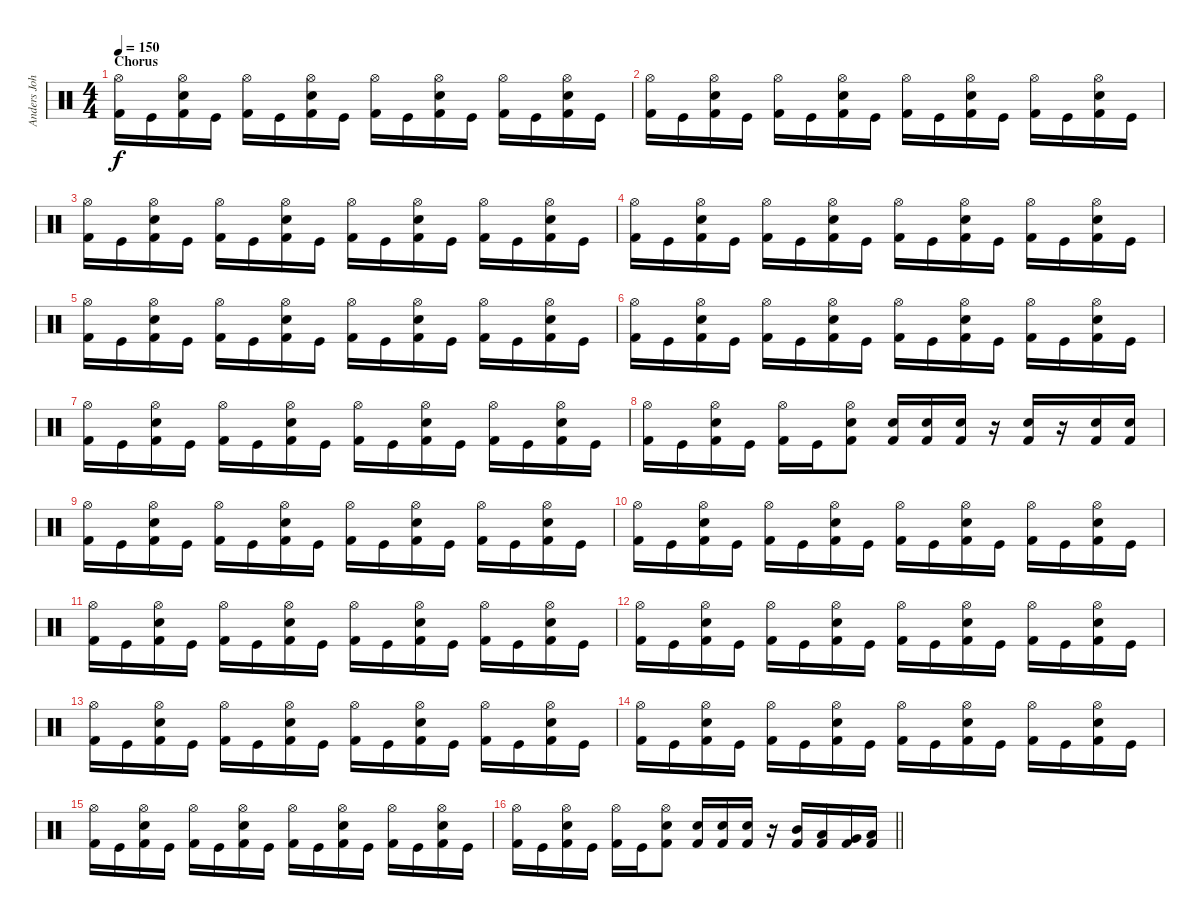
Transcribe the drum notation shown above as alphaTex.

\track ("Anders Johansson" "Anders Joh") {instrument percussion}
\staff {score}
\articulation defaults
\ts (4 4)
\section ("" "Chorus")
\tempo 150
\clef neutral
\ks c
("Hi-Hat (open)" "Kick (hit) 2").16{dy f} "Kick (hit)".16 ("Hi-Hat (open)" "Electric Snare (hit)" "Kick (hit) 2").16 "Kick (hit)".16 ("Hi-Hat (open)" "Kick (hit) 2").16 "Kick (hit)".16 ("Hi-Hat (open)" "Electric Snare (hit)" "Kick (hit) 2").16 "Kick (hit)".16 ("Hi-Hat (open)" "Kick (hit) 2").16 "Kick (hit)".16 ("Hi-Hat (open)" "Electric Snare (hit)" "Kick (hit) 2").16 "Kick (hit)".16 ("Hi-Hat (open)" "Kick (hit) 2").16 "Kick (hit)".16 ("Hi-Hat (open)" "Electric Snare (hit)" "Kick (hit) 2").16 "Kick (hit)".16 |
("Hi-Hat (open)" "Kick (hit) 2").16 "Kick (hit)".16 ("Hi-Hat (open)" "Electric Snare (hit)" "Kick (hit) 2").16 "Kick (hit)".16 ("Hi-Hat (open)" "Kick (hit) 2").16 "Kick (hit)".16 ("Hi-Hat (open)" "Electric Snare (hit)" "Kick (hit) 2").16 "Kick (hit)".16 ("Hi-Hat (open)" "Kick (hit) 2").16 "Kick (hit)".16 ("Hi-Hat (open)" "Electric Snare (hit)" "Kick (hit) 2").16 "Kick (hit)".16 ("Hi-Hat (open)" "Kick (hit) 2").16 "Kick (hit)".16 ("Hi-Hat (open)" "Electric Snare (hit)" "Kick (hit) 2").16 "Kick (hit)".16 |
("Hi-Hat (open)" "Kick (hit) 2").16 "Kick (hit)".16 ("Hi-Hat (open)" "Electric Snare (hit)" "Kick (hit) 2").16 "Kick (hit)".16 ("Hi-Hat (open)" "Kick (hit) 2").16 "Kick (hit)".16 ("Hi-Hat (open)" "Electric Snare (hit)" "Kick (hit) 2").16 "Kick (hit)".16 ("Hi-Hat (open)" "Kick (hit) 2").16 "Kick (hit)".16 ("Hi-Hat (open)" "Electric Snare (hit)" "Kick (hit) 2").16 "Kick (hit)".16 ("Hi-Hat (open)" "Kick (hit) 2").16 "Kick (hit)".16 ("Hi-Hat (open)" "Electric Snare (hit)" "Kick (hit) 2").16 "Kick (hit)".16 |
("Hi-Hat (open)" "Kick (hit) 2").16 "Kick (hit)".16 ("Hi-Hat (open)" "Electric Snare (hit)" "Kick (hit) 2").16 "Kick (hit)".16 ("Hi-Hat (open)" "Kick (hit) 2").16 "Kick (hit)".16 ("Hi-Hat (open)" "Electric Snare (hit)" "Kick (hit) 2").16 "Kick (hit)".16 ("Hi-Hat (open)" "Kick (hit) 2").16 "Kick (hit)".16 ("Hi-Hat (open)" "Electric Snare (hit)" "Kick (hit) 2").16 "Kick (hit)".16 ("Hi-Hat (open)" "Kick (hit) 2").16 "Kick (hit)".16 ("Hi-Hat (open)" "Electric Snare (hit)" "Kick (hit) 2").16 "Kick (hit)".16 |
("Hi-Hat (open)" "Kick (hit) 2").16 "Kick (hit)".16 ("Hi-Hat (open)" "Electric Snare (hit)" "Kick (hit) 2").16 "Kick (hit)".16 ("Hi-Hat (open)" "Kick (hit) 2").16 "Kick (hit)".16 ("Hi-Hat (open)" "Electric Snare (hit)" "Kick (hit) 2").16 "Kick (hit)".16 ("Hi-Hat (open)" "Kick (hit) 2").16 "Kick (hit)".16 ("Hi-Hat (open)" "Electric Snare (hit)" "Kick (hit) 2").16 "Kick (hit)".16 ("Hi-Hat (open)" "Kick (hit) 2").16 "Kick (hit)".16 ("Hi-Hat (open)" "Electric Snare (hit)" "Kick (hit) 2").16 "Kick (hit)".16 |
("Hi-Hat (open)" "Kick (hit) 2").16 "Kick (hit)".16 ("Hi-Hat (open)" "Electric Snare (hit)" "Kick (hit) 2").16 "Kick (hit)".16 ("Hi-Hat (open)" "Kick (hit) 2").16 "Kick (hit)".16 ("Hi-Hat (open)" "Electric Snare (hit)" "Kick (hit) 2").16 "Kick (hit)".16 ("Hi-Hat (open)" "Kick (hit) 2").16 "Kick (hit)".16 ("Hi-Hat (open)" "Electric Snare (hit)" "Kick (hit) 2").16 "Kick (hit)".16 ("Hi-Hat (open)" "Kick (hit) 2").16 "Kick (hit)".16 ("Hi-Hat (open)" "Electric Snare (hit)" "Kick (hit) 2").16 "Kick (hit)".16 |
("Hi-Hat (open)" "Kick (hit) 2").16 "Kick (hit)".16 ("Hi-Hat (open)" "Electric Snare (hit)" "Kick (hit) 2").16 "Kick (hit)".16 ("Hi-Hat (open)" "Kick (hit) 2").16 "Kick (hit)".16 ("Hi-Hat (open)" "Electric Snare (hit)" "Kick (hit) 2").16 "Kick (hit)".16 ("Hi-Hat (open)" "Kick (hit) 2").16 "Kick (hit)".16 ("Hi-Hat (open)" "Electric Snare (hit)" "Kick (hit) 2").16 "Kick (hit)".16 ("Hi-Hat (open)" "Kick (hit) 2").16 "Kick (hit)".16 ("Hi-Hat (open)" "Electric Snare (hit)" "Kick (hit) 2").16 "Kick (hit)".16 |
("Hi-Hat (open)" "Kick (hit) 2").16 "Kick (hit)".16 ("Hi-Hat (open)" "Electric Snare (hit)" "Kick (hit) 2").16 "Kick (hit)".16 ("Hi-Hat (open)" "Kick (hit) 2").16 "Kick (hit)".16 ("Hi-Hat (open)" "Electric Snare (hit)" "Kick (hit) 2").8 ("Electric Snare (hit)" "Kick (hit) 2").16 ("Electric Snare (hit)" "Kick (hit) 2").16 ("Electric Snare (hit)" "Kick (hit) 2").16 r.16 ("Electric Snare (hit)" "Kick (hit) 2").16 r.16 ("Electric Snare (hit)" "Kick (hit) 2").16 ("Electric Snare (hit)" "Kick (hit) 2").16 |
("Hi-Hat (open)" "Kick (hit) 2").16 "Kick (hit)".16 ("Hi-Hat (open)" "Electric Snare (hit)" "Kick (hit) 2").16 "Kick (hit)".16 ("Hi-Hat (open)" "Kick (hit) 2").16 "Kick (hit)".16 ("Hi-Hat (open)" "Electric Snare (hit)" "Kick (hit) 2").16 "Kick (hit)".16 ("Hi-Hat (open)" "Kick (hit) 2").16 "Kick (hit)".16 ("Hi-Hat (open)" "Electric Snare (hit)" "Kick (hit) 2").16 "Kick (hit)".16 ("Hi-Hat (open)" "Kick (hit) 2").16 "Kick (hit)".16 ("Hi-Hat (open)" "Electric Snare (hit)" "Kick (hit) 2").16 "Kick (hit)".16 |
("Hi-Hat (open)" "Kick (hit) 2").16 "Kick (hit)".16 ("Hi-Hat (open)" "Electric Snare (hit)" "Kick (hit) 2").16 "Kick (hit)".16 ("Hi-Hat (open)" "Kick (hit) 2").16 "Kick (hit)".16 ("Hi-Hat (open)" "Electric Snare (hit)" "Kick (hit) 2").16 "Kick (hit)".16 ("Hi-Hat (open)" "Kick (hit) 2").16 "Kick (hit)".16 ("Hi-Hat (open)" "Electric Snare (hit)" "Kick (hit) 2").16 "Kick (hit)".16 ("Hi-Hat (open)" "Kick (hit) 2").16 "Kick (hit)".16 ("Hi-Hat (open)" "Electric Snare (hit)" "Kick (hit) 2").16 "Kick (hit)".16 |
("Hi-Hat (open)" "Kick (hit) 2").16 "Kick (hit)".16 ("Hi-Hat (open)" "Electric Snare (hit)" "Kick (hit) 2").16 "Kick (hit)".16 ("Hi-Hat (open)" "Kick (hit) 2").16 "Kick (hit)".16 ("Hi-Hat (open)" "Electric Snare (hit)" "Kick (hit) 2").16 "Kick (hit)".16 ("Hi-Hat (open)" "Kick (hit) 2").16 "Kick (hit)".16 ("Hi-Hat (open)" "Electric Snare (hit)" "Kick (hit) 2").16 "Kick (hit)".16 ("Hi-Hat (open)" "Kick (hit) 2").16 "Kick (hit)".16 ("Hi-Hat (open)" "Electric Snare (hit)" "Kick (hit) 2").16 "Kick (hit)".16 |
("Hi-Hat (open)" "Kick (hit) 2").16 "Kick (hit)".16 ("Hi-Hat (open)" "Electric Snare (hit)" "Kick (hit) 2").16 "Kick (hit)".16 ("Hi-Hat (open)" "Kick (hit) 2").16 "Kick (hit)".16 ("Hi-Hat (open)" "Electric Snare (hit)" "Kick (hit) 2").16 "Kick (hit)".16 ("Hi-Hat (open)" "Kick (hit) 2").16 "Kick (hit)".16 ("Hi-Hat (open)" "Electric Snare (hit)" "Kick (hit) 2").16 "Kick (hit)".16 ("Hi-Hat (open)" "Kick (hit) 2").16 "Kick (hit)".16 ("Hi-Hat (open)" "Electric Snare (hit)" "Kick (hit) 2").16 "Kick (hit)".16 |
("Hi-Hat (open)" "Kick (hit) 2").16 "Kick (hit)".16 ("Hi-Hat (open)" "Electric Snare (hit)" "Kick (hit) 2").16 "Kick (hit)".16 ("Hi-Hat (open)" "Kick (hit) 2").16 "Kick (hit)".16 ("Hi-Hat (open)" "Electric Snare (hit)" "Kick (hit) 2").16 "Kick (hit)".16 ("Hi-Hat (open)" "Kick (hit) 2").16 "Kick (hit)".16 ("Hi-Hat (open)" "Electric Snare (hit)" "Kick (hit) 2").16 "Kick (hit)".16 ("Hi-Hat (open)" "Kick (hit) 2").16 "Kick (hit)".16 ("Hi-Hat (open)" "Electric Snare (hit)" "Kick (hit) 2").16 "Kick (hit)".16 |
("Hi-Hat (open)" "Kick (hit) 2").16 "Kick (hit)".16 ("Hi-Hat (open)" "Electric Snare (hit)" "Kick (hit) 2").16 "Kick (hit)".16 ("Hi-Hat (open)" "Kick (hit) 2").16 "Kick (hit)".16 ("Hi-Hat (open)" "Electric Snare (hit)" "Kick (hit) 2").16 "Kick (hit)".16 ("Hi-Hat (open)" "Kick (hit) 2").16 "Kick (hit)".16 ("Hi-Hat (open)" "Electric Snare (hit)" "Kick (hit) 2").16 "Kick (hit)".16 ("Hi-Hat (open)" "Kick (hit) 2").16 "Kick (hit)".16 ("Hi-Hat (open)" "Electric Snare (hit)" "Kick (hit) 2").16 "Kick (hit)".16 |
("Hi-Hat (open)" "Kick (hit) 2").16 "Kick (hit)".16 ("Hi-Hat (open)" "Electric Snare (hit)" "Kick (hit) 2").16 "Kick (hit)".16 ("Hi-Hat (open)" "Kick (hit) 2").16 "Kick (hit)".16 ("Hi-Hat (open)" "Electric Snare (hit)" "Kick (hit) 2").16 "Kick (hit)".16 ("Hi-Hat (open)" "Kick (hit) 2").16 "Kick (hit)".16 ("Hi-Hat (open)" "Electric Snare (hit)" "Kick (hit) 2").16 "Kick (hit)".16 ("Hi-Hat (open)" "Kick (hit) 2").16 "Kick (hit)".16 ("Hi-Hat (open)" "Electric Snare (hit)" "Kick (hit) 2").16 "Kick (hit)".16 |
\barLineRight lightlight
("Hi-Hat (open)" "Kick (hit) 2").16 "Kick (hit)".16 ("Hi-Hat (open)" "Electric Snare (hit)" "Kick (hit) 2").16 "Kick (hit)".16 ("Hi-Hat (open)" "Kick (hit) 2").16 "Kick (hit)".16 ("Hi-Hat (open)" "Electric Snare (hit)" "Kick (hit) 2").8 ("Electric Snare (hit)" "Kick (hit) 2").16 ("Electric Snare (hit)" "Kick (hit) 2").16 ("Electric Snare (hit)" "Kick (hit) 2").16 r.16 ("Mid Tom (hit)" "Kick (hit) 2").16 ("Low Tom (hit)" "Kick (hit) 2").16 ("Very Low Tom (hit)" "Kick (hit) 2").16 ("Low Floor Tom (hit)" "Kick (hit) 2").16
